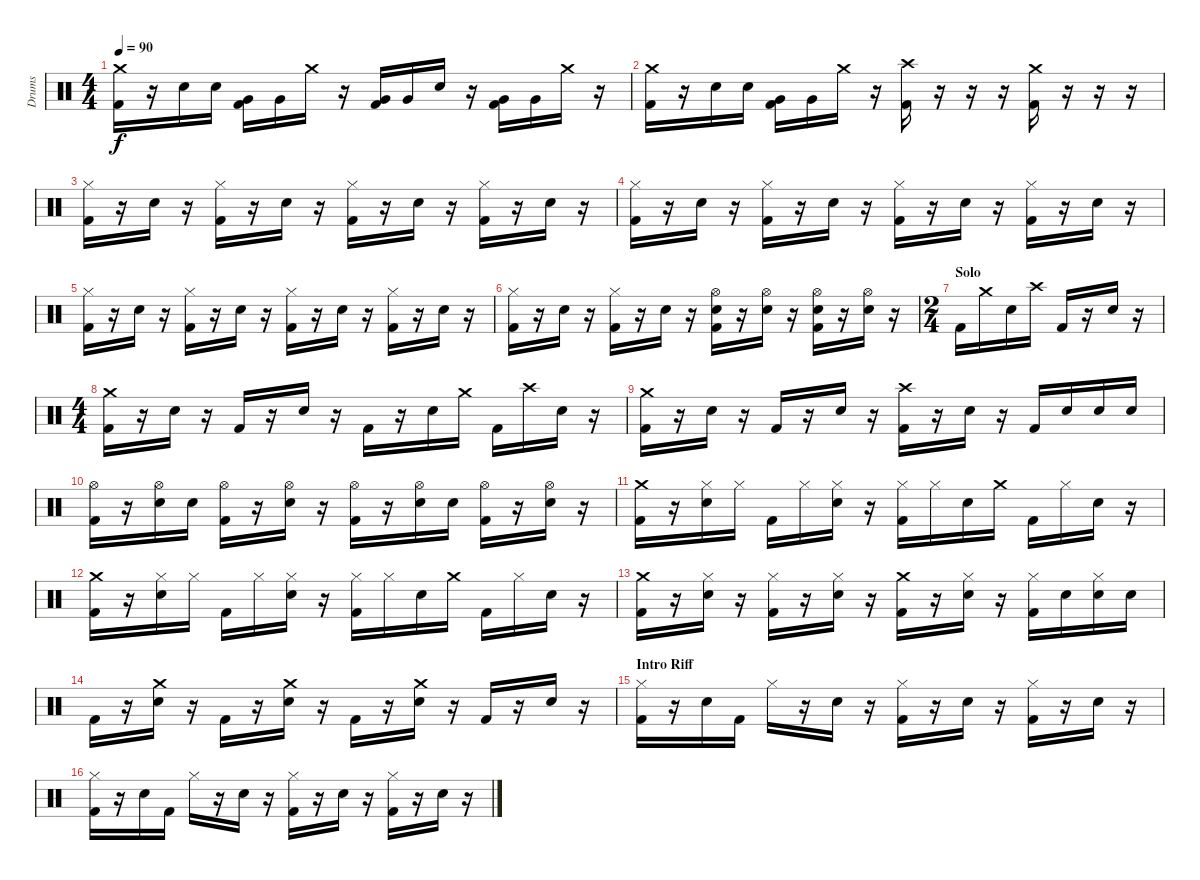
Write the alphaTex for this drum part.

\track ("Drums" "Drums") {instrument percussion}
\staff {score}
\articulation defaults
\ts (4 4)
\tempo 90
\clef neutral
\ks c
("Crash medium (hit)" "Kick (hit) 2").16{dy f} r.16 "Electric Snare (hit)".16 "Electric Snare (hit)".16 ("Very Low Tom (hit)" "Kick (hit) 2").16 "Very Low Tom (hit)".16 "Crash medium (hit)".16 r.16 ("Very Low Tom (hit)" "Kick (hit) 2").16 "Very Low Tom (hit)".16 "Electric Snare (hit)".16 r.16 ("Very Low Tom (hit)" "Kick (hit) 2").16 "Very Low Tom (hit)".16 "Crash medium (hit)".16 r.16 |
("Crash medium (hit)" "Kick (hit) 2").16 r.16 "Electric Snare (hit)".16 "Electric Snare (hit)".16 ("Very Low Tom (hit)" "Kick (hit) 2").16 "Very Low Tom (hit)".16 "Crash medium (hit)".16 r.16 ("Crash high (hit)" "Kick (hit) 2").16 r.16 r.16 r.16 ("Crash medium (hit)" "Kick (hit) 2").16 r.16 r.16 r.16 |
("Hi-Hat (closed)" "Kick (hit) 2").16 r.16 "Electric Snare (hit)".16 r.16 ("Hi-Hat (closed)" "Kick (hit) 2").16 r.16 "Electric Snare (hit)".16 r.16 ("Hi-Hat (closed)" "Kick (hit) 2").16 r.16 "Electric Snare (hit)".16 r.16 ("Hi-Hat (closed)" "Kick (hit) 2").16 r.16 "Electric Snare (hit)".16 r.16 |
("Hi-Hat (closed)" "Kick (hit) 2").16 r.16 "Electric Snare (hit)".16 r.16 ("Hi-Hat (closed)" "Kick (hit) 2").16 r.16 "Electric Snare (hit)".16 r.16 ("Hi-Hat (closed)" "Kick (hit) 2").16 r.16 "Electric Snare (hit)".16 r.16 ("Hi-Hat (closed)" "Kick (hit) 2").16 r.16 "Electric Snare (hit)".16 r.16 |
("Hi-Hat (closed)" "Kick (hit) 2").16 r.16 "Electric Snare (hit)".16 r.16 ("Hi-Hat (closed)" "Kick (hit) 2").16 r.16 "Electric Snare (hit)".16 r.16 ("Hi-Hat (closed)" "Kick (hit) 2").16 r.16 "Electric Snare (hit)".16 r.16 ("Hi-Hat (closed)" "Kick (hit) 2").16 r.16 "Electric Snare (hit)".16 r.16 |
("Hi-Hat (closed)" "Kick (hit) 2").16 r.16 "Electric Snare (hit)".16 r.16 ("Hi-Hat (closed)" "Kick (hit) 2").16 r.16 "Electric Snare (hit)".16 r.16 ("Hi-Hat (open)" "Electric Snare (hit)" "Kick (hit) 2").16 r.16 ("Hi-Hat (open)" "Electric Snare (hit)").16 r.16 ("Hi-Hat (open)" "Electric Snare (hit)" "Kick (hit) 2").16 r.16 ("Hi-Hat (open)" "Electric Snare (hit)").16 r.16 |
\ts (2 4)
\section ("" "Solo")
"Kick (hit) 2".16 "Crash medium (hit)".16 "Electric Snare (hit)".16 "Crash high (hit)".16 "Kick (hit) 2".16 r.16 "Electric Snare (hit)".16 r.16 |
\ts (4 4)
("Crash medium (hit)" "Kick (hit) 2").16 r.16 "Electric Snare (hit)".16 r.16 "Kick (hit) 2".16 r.16 "Electric Snare (hit)".16 r.16 "Kick (hit) 2".16 r.16 "Electric Snare (hit)".16 "Crash medium (hit)".16 "Kick (hit) 2".16 "Crash high (hit)".16 "Electric Snare (hit)".16 r.16 |
("Crash medium (hit)" "Kick (hit) 2").16 r.16 "Electric Snare (hit)".16 r.16 "Kick (hit) 2".16 r.16 "Electric Snare (hit)".16 r.16 ("Crash high (hit)" "Kick (hit) 2").16 r.16 "Electric Snare (hit)".16 r.16 "Kick (hit) 2".16 "Electric Snare (hit)".16 "Electric Snare (hit)".16 "Electric Snare (hit)".16 |
("Hi-Hat (open)" "Kick (hit) 2").16 r.16 ("Hi-Hat (open)" "Electric Snare (hit)").16 "Electric Snare (hit)".16 ("Hi-Hat (open)" "Kick (hit) 2").16 r.16 ("Hi-Hat (open)" "Electric Snare (hit)").16 r.16 ("Hi-Hat (open)" "Kick (hit) 2").16 r.16 ("Hi-Hat (open)" "Electric Snare (hit)").16 "Electric Snare (hit)".16 ("Hi-Hat (open)" "Kick (hit) 2").16 r.16 ("Hi-Hat (open)" "Electric Snare (hit)").16 r.16 |
("Crash medium (hit)" "Kick (hit) 2").16 r.16 ("Hi-Hat (closed)" "Electric Snare (hit)").16 "Hi-Hat (closed)".16 "Kick (hit) 2".16 "Hi-Hat (closed)".16 ("Hi-Hat (closed)" "Electric Snare (hit)").16 r.16 ("Hi-Hat (closed)" "Kick (hit) 2").16 "Hi-Hat (closed)".16 "Electric Snare (hit)".16 "Crash medium (hit)".16 "Kick (hit) 2".16 "Hi-Hat (closed)".16 "Electric Snare (hit)".16 r.16 |
("Crash medium (hit)" "Kick (hit) 2").16 r.16 ("Hi-Hat (closed)" "Electric Snare (hit)").16 "Hi-Hat (closed)".16 "Kick (hit) 2".16 "Hi-Hat (closed)".16 ("Hi-Hat (closed)" "Electric Snare (hit)").16 r.16 ("Hi-Hat (closed)" "Kick (hit) 2").16 "Hi-Hat (closed)".16 "Electric Snare (hit)".16 "Crash medium (hit)".16 "Kick (hit) 2".16 "Hi-Hat (closed)".16 "Electric Snare (hit)".16 r.16 |
("Crash medium (hit)" "Kick (hit) 2").16 r.16 ("Hi-Hat (closed)" "Electric Snare (hit)").16 r.16 ("Hi-Hat (closed)" "Kick (hit) 2").16 r.16 ("Hi-Hat (closed)" "Electric Snare (hit)").16 r.16 ("Crash medium (hit)" "Kick (hit) 2").16 r.16 ("Hi-Hat (closed)" "Electric Snare (hit)").16 r.16 ("Hi-Hat (closed)" "Kick (hit) 2").16 "Electric Snare (hit)".16 ("Hi-Hat (closed)" "Electric Snare (hit)").16 "Electric Snare (hit)".16 |
"Kick (hit) 2".16 r.16 ("Crash medium (hit)" "Electric Snare (hit)").16 r.16 "Kick (hit) 2".16 r.16 ("Crash medium (hit)" "Electric Snare (hit)").16 r.16 "Kick (hit) 2".16 r.16 ("Crash medium (hit)" "Electric Snare (hit)").16 r.16 "Kick (hit) 2".16 r.16 "Electric Snare (hit)".16 r.16 |
\section ("" "Intro Riff")
("Hi-Hat (closed)" "Kick (hit) 2").16 r.16 "Electric Snare (hit)".16 "Kick (hit) 2".16 "Hi-Hat (closed)".16 r.16 "Electric Snare (hit)".16 r.16 ("Hi-Hat (closed)" "Kick (hit) 2").16 r.16 "Electric Snare (hit)".16 r.16 ("Hi-Hat (closed)" "Kick (hit) 2").16 r.16 "Electric Snare (hit)".16 r.16 |
("Hi-Hat (closed)" "Kick (hit) 2").16 r.16 "Electric Snare (hit)".16 "Kick (hit) 2".16 "Hi-Hat (closed)".16 r.16 "Electric Snare (hit)".16 r.16 ("Hi-Hat (closed)" "Kick (hit) 2").16 r.16 "Electric Snare (hit)".16 r.16 ("Hi-Hat (closed)" "Kick (hit) 2").16 r.16 "Electric Snare (hit)".16 r.16
